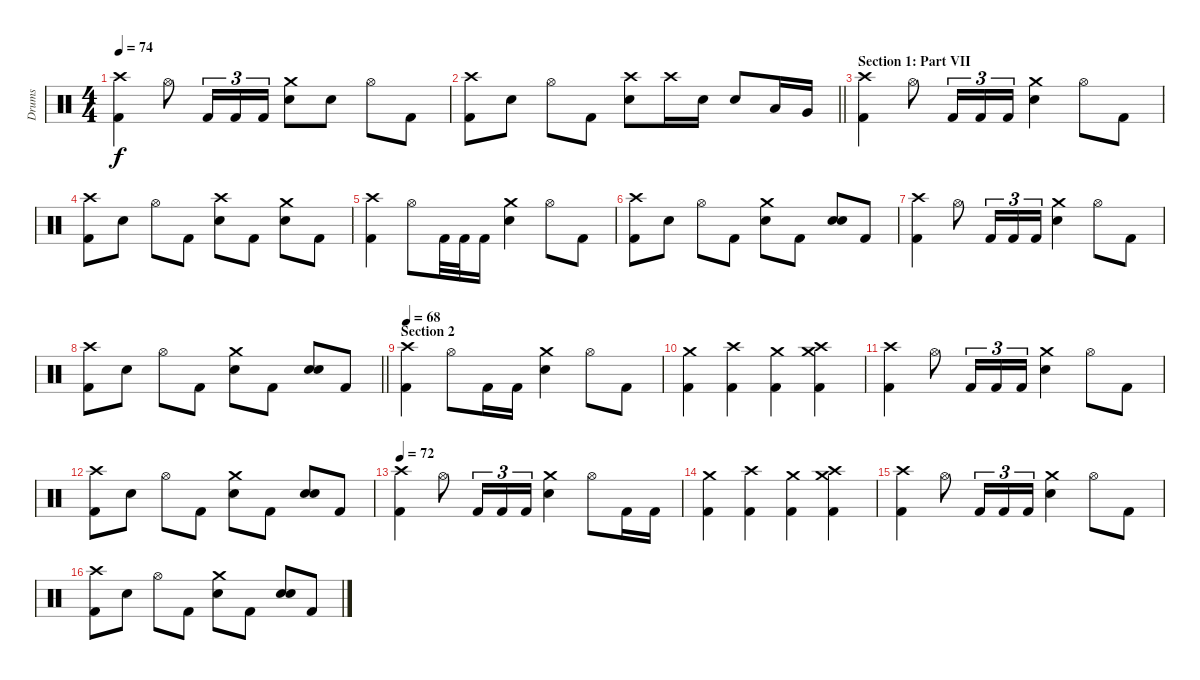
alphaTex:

\track ("Drums" "Drums") {instrument percussion}
\staff {score}
\articulation defaults
\ts (4 4)
\tempo 74
\clef neutral
\ks c
("Crash high (hit)" "Kick (hit) 2").4{dy f} "Hi-Hat (open)".8 "Kick (hit) 2".16{tu (3 2)} "Kick (hit) 2".16{tu (3 2)} "Kick (hit) 2".16{tu (3 2)} ("Crash medium (hit)" "Electric Snare (hit)").8 "Electric Snare (hit)".8 "Hi-Hat (open)".8 "Kick (hit) 2".8 |
\barLineRight lightlight
("Crash high (hit)" "Kick (hit) 2").8 "Electric Snare (hit)".8 "Hi-Hat (open)".8 "Kick (hit) 2".8 ("Crash high (hit)" "Electric Snare (hit)").8 "Crash high (hit)".16 "Electric Snare (hit)".16 "Electric Snare (hit)".8 "Low Tom (hit)".16 "Very Low Tom (hit)".16 |
\section ("" "Section 1: Part VII")
("Crash high (hit)" "Kick (hit) 2").4 "Hi-Hat (open)".8 "Kick (hit) 2".16{tu (3 2)} "Kick (hit) 2".16{tu (3 2)} "Kick (hit) 2".16{tu (3 2)} ("Crash medium (hit)" "Electric Snare (hit)").4 "Hi-Hat (open)".8 "Kick (hit) 2".8 |
("Crash high (hit)" "Kick (hit) 2").8 "Electric Snare (hit)".8 "Hi-Hat (open)".8 "Kick (hit) 2".8 ("Crash high (hit)" "Electric Snare (hit)").8 "Kick (hit) 2".8 ("Crash medium (hit)" "Electric Snare (hit)").8 "Kick (hit) 2".8 |
("Crash high (hit)" "Kick (hit) 2").4 "Hi-Hat (open)".8 "Kick (hit) 2".32 "Kick (hit) 2".32 "Kick (hit) 2".16 ("Crash medium (hit)" "Electric Snare (hit)").4 "Hi-Hat (open)".8 "Kick (hit) 2".8 |
("Crash high (hit)" "Kick (hit) 2").8 "Electric Snare (hit)".8 "Hi-Hat (open)".8 "Kick (hit) 2".8 ("Crash medium (hit)" "Electric Snare (hit)").8 "Kick (hit) 2".8 ("Electric Snare (hit)" "Electric Snare (hit)").8{bu 60} "Kick (hit) 2".8 |
("Crash high (hit)" "Kick (hit) 2").4 "Hi-Hat (open)".8 "Kick (hit) 2".16{tu (3 2)} "Kick (hit) 2".16{tu (3 2)} "Kick (hit) 2".16{tu (3 2)} ("Crash medium (hit)" "Electric Snare (hit)").4 "Hi-Hat (open)".8 "Kick (hit) 2".8 |
\barLineRight lightlight
("Crash high (hit)" "Kick (hit) 2").8 "Electric Snare (hit)".8 "Hi-Hat (open)".8 "Kick (hit) 2".8 ("Crash medium (hit)" "Electric Snare (hit)").8 "Kick (hit) 2".8 ("Electric Snare (hit)" "Electric Snare (hit)").8{bu 60} "Kick (hit) 2".8 |
\section ("" "Section 2")
\tempo 68
("Crash high (hit)" "Kick (hit) 2").4 "Hi-Hat (open)".8 "Kick (hit) 2".16 "Kick (hit) 2".16 ("Crash medium (hit)" "Electric Snare (hit)").4 "Hi-Hat (open)".8 "Kick (hit) 2".8 |
("Crash medium (hit)" "Kick (hit) 2").4 ("Crash high (hit)" "Kick (hit) 2").4 ("Crash medium (hit)" "Kick (hit) 2").4 ("Crash high (hit)" "Crash medium (hit)" "Kick (hit) 2").4 |
("Crash high (hit)" "Kick (hit) 2").4 "Hi-Hat (open)".8 "Kick (hit) 2".16{tu (3 2)} "Kick (hit) 2".16{tu (3 2)} "Kick (hit) 2".16{tu (3 2)} ("Crash medium (hit)" "Electric Snare (hit)").4 "Hi-Hat (open)".8 "Kick (hit) 2".8 |
("Crash high (hit)" "Kick (hit) 2").8 "Electric Snare (hit)".8 "Hi-Hat (open)".8 "Kick (hit) 2".8 ("Crash medium (hit)" "Electric Snare (hit)").8 "Kick (hit) 2".8 ("Electric Snare (hit)" "Electric Snare (hit)").8{bu 60} "Kick (hit) 2".8 |
\tempo 72
("Crash high (hit)" "Kick (hit) 2").4 "Hi-Hat (open)".8 "Kick (hit) 2".16{tu (3 2)} "Kick (hit) 2".16{tu (3 2)} "Kick (hit) 2".16{tu (3 2)} ("Crash medium (hit)" "Electric Snare (hit)").4 "Hi-Hat (open)".8 "Kick (hit) 2".16 "Kick (hit) 2".16 |
("Crash medium (hit)" "Kick (hit) 2").4 ("Crash high (hit)" "Kick (hit) 2").4 ("Crash medium (hit)" "Kick (hit) 2").4 ("Crash high (hit)" "Crash medium (hit)" "Kick (hit) 2").4 |
("Crash high (hit)" "Kick (hit) 2").4 "Hi-Hat (open)".8 "Kick (hit) 2".16{tu (3 2)} "Kick (hit) 2".16{tu (3 2)} "Kick (hit) 2".16{tu (3 2)} ("Crash medium (hit)" "Electric Snare (hit)").4 "Hi-Hat (open)".8 "Kick (hit) 2".8 |
("Crash high (hit)" "Kick (hit) 2").8 "Electric Snare (hit)".8 "Hi-Hat (open)".8 "Kick (hit) 2".8 ("Crash medium (hit)" "Electric Snare (hit)").8 "Kick (hit) 2".8 ("Electric Snare (hit)" "Electric Snare (hit)").8{bu 60} "Kick (hit) 2".8
